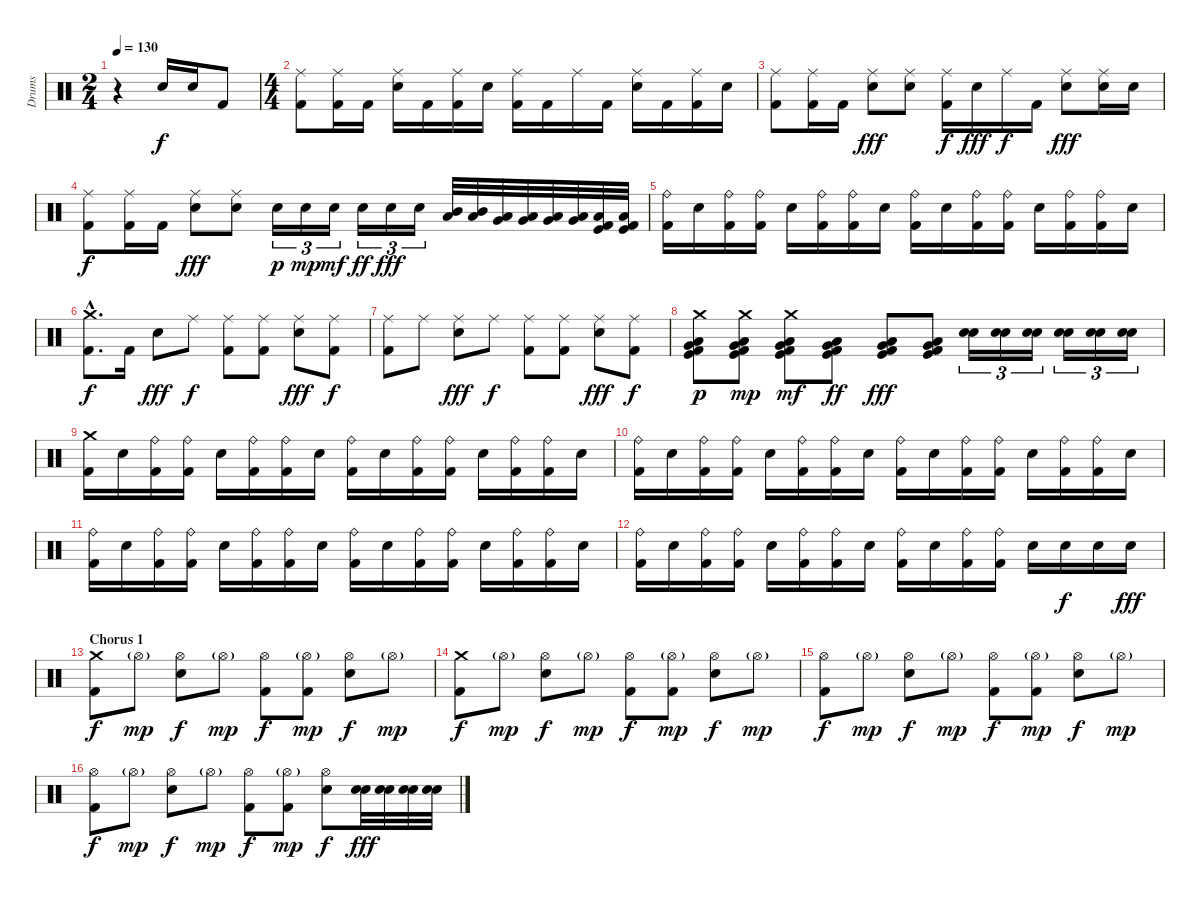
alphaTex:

\track ("Drums" "Drums") {instrument percussion}
\staff {score}
\articulation defaults
\ts (2 4)
\tempo 130
\clef neutral
\ks c
r.4{dy f volume 14} "Snare (hit) 2".16 "Snare (hit) 2".16 "Kick (hit) 2".8 |
\ts (4 4)
("Ride (middle)" "Kick (hit) 2").8 ("Ride (middle)" "Kick (hit) 2").16 "Kick (hit) 2".16 ("Ride (middle)" "Electric Snare (hit)").16 "Kick (hit) 2".16 ("Ride (middle)" "Kick (hit) 2").16 "Electric Snare (hit)".16 ("Ride (middle)" "Kick (hit) 2").16 "Kick (hit) 2".16 "Ride (middle)".16 "Kick (hit) 2".16 ("Ride (middle)" "Electric Snare (hit)").16 "Kick (hit) 2".16 ("Ride (middle)" "Kick (hit) 2").16 "Electric Snare (hit)".16 |
("Ride (middle)" "Kick (hit) 2").8 ("Ride (middle)" "Kick (hit) 2").16 "Kick (hit) 2".16 ("Ride (middle)" "Electric Snare (hit)").8{dy fff} ("Ride (middle)" "Electric Snare (hit)").8 ("Ride (middle)" "Kick (hit) 2").16{dy f} "Electric Snare (hit)".16{dy fff} "Ride (middle)".16{dy f} "Kick (hit) 2".16 ("Ride (middle)" "Electric Snare (hit)").8{dy fff} ("Ride (middle)" "Electric Snare (hit)").16 "Electric Snare (hit)".16 |
("Ride (middle)" "Kick (hit) 2").8{dy f} ("Ride (middle)" "Kick (hit) 2").16 "Kick (hit) 2".16 ("Ride (middle)" "Electric Snare (hit)").8{dy fff} ("Ride (middle)" "Electric Snare (hit)").8 "Electric Snare (hit)".16{tu (3 2) dy p} "Electric Snare (hit)".16{tu (3 2) dy mp} "Electric Snare (hit)".16{tu (3 2) dy mf} "Electric Snare (hit)".16{tu (3 2) dy ff} "Electric Snare (hit)".16{tu (3 2) dy fff} "Electric Snare (hit)".16{tu (3 2)} ("Mid Tom (hit)" "Low Tom (hit)").32 ("Mid Tom (hit)" "Low Tom (hit)").32 ("Low Tom (hit)" "Very Low Tom (hit)").32 ("Low Tom (hit)" "Very Low Tom (hit)").32 ("Very Low Tom (hit)" "Low Floor Tom (hit)").32 ("Very Low Tom (hit)" "Low Floor Tom (hit)").32 ("Low Floor Tom (hit)" "Kick (hit)" "Kick (hit) 2").32 ("Low Floor Tom (hit)" "Kick (hit)" "Kick (hit) 2").32 |
("Ride (bell)" "Kick (hit) 2").16 "Electric Snare (hit)".16 ("Ride (bell)" "Kick (hit) 2").16 ("Ride (bell)" "Kick (hit) 2").16 "Electric Snare (hit)".16 ("Ride (bell)" "Kick (hit) 2").16 ("Ride (bell)" "Kick (hit) 2").16 "Electric Snare (hit)".16 ("Ride (bell)" "Kick (hit) 2").16 "Electric Snare (hit)".16 ("Ride (bell)" "Kick (hit) 2").16 ("Ride (bell)" "Kick (hit) 2").16 "Electric Snare (hit)".16 ("Ride (bell)" "Kick (hit) 2").16 ("Ride (bell)" "Kick (hit) 2").16 "Electric Snare (hit)".16 |
("Crash medium (hit)"{hac} "Kick (hit) 2"{hac}).8{d dy f} "Kick (hit) 2".16 "Electric Snare (hit)".8{dy fff} "Ride (middle)".8{dy f} ("Ride (middle)" "Kick (hit) 2").8 ("Ride (middle)" "Kick (hit) 2").8 ("Ride (middle)" "Electric Snare (hit)").8{dy fff} ("Ride (middle)" "Kick (hit) 2").8{dy f} |
("Ride (middle)" "Kick (hit) 2").8 "Ride (middle)".8 ("Ride (middle)" "Electric Snare (hit)").8{dy fff} "Ride (middle)".8{dy f} ("Ride (middle)" "Kick (hit) 2").8 ("Ride (middle)" "Kick (hit) 2").8 ("Ride (middle)" "Electric Snare (hit)").8{dy fff} ("Ride (middle)" "Kick (hit) 2").8{dy f} |
("Crash medium (hit)" "Very Low Tom (hit)" "Low Floor Tom (hit)" "Kick (hit)" "Kick (hit) 2").8{dy p} ("Crash medium (hit)" "Very Low Tom (hit)" "Low Floor Tom (hit)" "Kick (hit)" "Kick (hit) 2").8{dy mp} ("Crash medium (hit)" "Very Low Tom (hit)" "Low Floor Tom (hit)" "Kick (hit)" "Kick (hit) 2").8{dy mf} ("Very Low Tom (hit)" "Low Floor Tom (hit)" "Kick (hit)" "Kick (hit) 2").8{dy ff} ("Very Low Tom (hit)" "Low Floor Tom (hit)" "Kick (hit)" "Kick (hit) 2").8{dy fff} ("Very Low Tom (hit)" "Low Floor Tom (hit)" "Kick (hit)" "Kick (hit) 2").8 ("Electric Snare (hit)" "Snare (hit) 2").16{tu (3 2) bd 60} ("Electric Snare (hit)" "Snare (hit) 2").16{tu (3 2) bd 60} ("Electric Snare (hit)" "Snare (hit) 2").16{tu (3 2) bd 60} ("Electric Snare (hit)" "Snare (hit) 2").16{tu (3 2) bd 60} ("Electric Snare (hit)" "Snare (hit) 2").16{tu (3 2) bd 60} ("Electric Snare (hit)" "Snare (hit) 2").16{tu (3 2) bd 60} |
("Crash medium (hit)" "Kick (hit) 2").16 "Electric Snare (hit)".16 ("Ride (bell)" "Kick (hit) 2").16 ("Ride (bell)" "Kick (hit) 2").16 "Electric Snare (hit)".16 ("Ride (bell)" "Kick (hit) 2").16 ("Ride (bell)" "Kick (hit) 2").16 "Electric Snare (hit)".16 ("Ride (bell)" "Kick (hit) 2").16 "Electric Snare (hit)".16 ("Ride (bell)" "Kick (hit) 2").16 ("Ride (bell)" "Kick (hit) 2").16 "Electric Snare (hit)".16 ("Ride (bell)" "Kick (hit) 2").16 ("Ride (bell)" "Kick (hit) 2").16 "Electric Snare (hit)".16 |
("Ride (bell)" "Kick (hit) 2").16 "Electric Snare (hit)".16 ("Ride (bell)" "Kick (hit) 2").16 ("Ride (bell)" "Kick (hit) 2").16 "Electric Snare (hit)".16 ("Ride (bell)" "Kick (hit) 2").16 ("Ride (bell)" "Kick (hit) 2").16 "Electric Snare (hit)".16 ("Ride (bell)" "Kick (hit) 2").16 "Electric Snare (hit)".16 ("Ride (bell)" "Kick (hit) 2").16 ("Ride (bell)" "Kick (hit) 2").16 "Electric Snare (hit)".16 ("Ride (bell)" "Kick (hit) 2").16 ("Ride (bell)" "Kick (hit) 2").16 "Electric Snare (hit)".16 |
("Ride (bell)" "Kick (hit) 2").16 "Electric Snare (hit)".16 ("Ride (bell)" "Kick (hit) 2").16 ("Ride (bell)" "Kick (hit) 2").16 "Electric Snare (hit)".16 ("Ride (bell)" "Kick (hit) 2").16 ("Ride (bell)" "Kick (hit) 2").16 "Electric Snare (hit)".16 ("Ride (bell)" "Kick (hit) 2").16 "Electric Snare (hit)".16 ("Ride (bell)" "Kick (hit) 2").16 ("Ride (bell)" "Kick (hit) 2").16 "Electric Snare (hit)".16 ("Ride (bell)" "Kick (hit) 2").16 ("Ride (bell)" "Kick (hit) 2").16 "Electric Snare (hit)".16 |
("Ride (bell)" "Kick (hit) 2").16 "Electric Snare (hit)".16 ("Ride (bell)" "Kick (hit) 2").16 ("Ride (bell)" "Kick (hit) 2").16 "Electric Snare (hit)".16 ("Ride (bell)" "Kick (hit) 2").16 ("Ride (bell)" "Kick (hit) 2").16 "Electric Snare (hit)".16 ("Ride (bell)" "Kick (hit) 2").16 "Electric Snare (hit)".16 ("Ride (bell)" "Kick (hit) 2").16 ("Ride (bell)" "Kick (hit) 2").16 "Electric Snare (hit)".16 "Electric Snare (hit)".16{dy f} "Electric Snare (hit)".16 "Electric Snare (hit)".16{dy fff} |
\section ("" "Chorus 1")
("Crash medium (hit)" "Kick (hit) 2").8{dy f} "Hi-Hat (open)"{g}.8{dy mp} ("Hi-Hat (open)" "Electric Snare (hit)").8{dy f} "Hi-Hat (open)"{g}.8{dy mp} ("Hi-Hat (open)" "Kick (hit) 2").8{dy f} ("Hi-Hat (open)"{g} "Kick (hit) 2").8{dy mp} ("Hi-Hat (open)" "Electric Snare (hit)").8{dy f} "Hi-Hat (open)"{g}.8{dy mp} |
("Crash medium (hit)" "Kick (hit) 2").8{dy f} "Hi-Hat (open)"{g}.8{dy mp} ("Hi-Hat (open)" "Electric Snare (hit)").8{dy f} "Hi-Hat (open)"{g}.8{dy mp} ("Hi-Hat (open)" "Kick (hit) 2").8{dy f} ("Hi-Hat (open)"{g} "Kick (hit) 2").8{dy mp} ("Hi-Hat (open)" "Electric Snare (hit)").8{dy f} "Hi-Hat (open)"{g}.8{dy mp} |
("Hi-Hat (open)" "Kick (hit) 2").8{dy f} "Hi-Hat (open)"{g}.8{dy mp} ("Hi-Hat (open)" "Electric Snare (hit)").8{dy f} "Hi-Hat (open)"{g}.8{dy mp} ("Hi-Hat (open)" "Kick (hit) 2").8{dy f} ("Hi-Hat (open)"{g} "Kick (hit) 2").8{dy mp} ("Hi-Hat (open)" "Electric Snare (hit)").8{dy f} "Hi-Hat (open)"{g}.8{dy mp} |
("Hi-Hat (open)" "Kick (hit) 2").8{dy f} "Hi-Hat (open)"{g}.8{dy mp} ("Hi-Hat (open)" "Electric Snare (hit)").8{dy f} "Hi-Hat (open)"{g}.8{dy mp} ("Hi-Hat (open)" "Kick (hit) 2").8{dy f} ("Hi-Hat (open)"{g} "Kick (hit) 2").8{dy mp} ("Hi-Hat (open)" "Electric Snare (hit)").8{dy f} ("Electric Snare (hit)" "Snare (hit) 2").32{bd 480 dy fff} ("Electric Snare (hit)" "Snare (hit) 2").32{bd 480} ("Electric Snare (hit)" "Snare (hit) 2").32{bd 480} ("Electric Snare (hit)" "Snare (hit) 2").32{bd 480}
